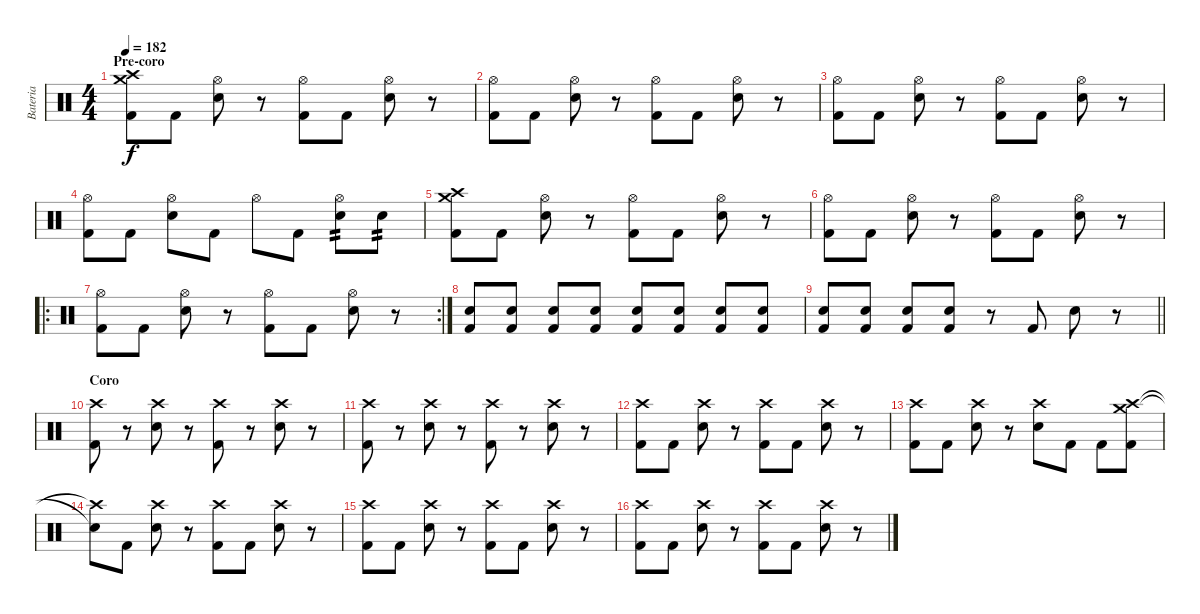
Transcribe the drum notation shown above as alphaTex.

\track ("Bateria" "Bateria") {instrument percussion}
\staff {score}
\articulation defaults
\ts (4 4)
\section ("" "Pre-coro")
\tempo 182
\clef neutral
\ks c
("Crash high (hit)" "Crash medium (hit)" "Kick (hit) 2").8{dy f} "Kick (hit) 2".8 ("Hi-Hat (open)" "Electric Snare (hit)").8 r.8 ("Hi-Hat (open)" "Kick (hit) 2").8 "Kick (hit) 2".8 ("Hi-Hat (open)" "Electric Snare (hit)").8 r.8 |
("Hi-Hat (open)" "Kick (hit) 2").8 "Kick (hit) 2".8 ("Hi-Hat (open)" "Electric Snare (hit)").8 r.8 ("Hi-Hat (open)" "Kick (hit) 2").8 "Kick (hit) 2".8 ("Hi-Hat (open)" "Electric Snare (hit)").8 r.8 |
("Hi-Hat (open)" "Kick (hit) 2").8 "Kick (hit) 2".8 ("Hi-Hat (open)" "Electric Snare (hit)").8 r.8 ("Hi-Hat (open)" "Kick (hit) 2").8 "Kick (hit) 2".8 ("Hi-Hat (open)" "Electric Snare (hit)").8 r.8 |
("Hi-Hat (open)" "Kick (hit) 2").8 "Kick (hit) 2".8 ("Hi-Hat (open)" "Electric Snare (hit)").8 "Kick (hit) 2".8 "Hi-Hat (open)".8 "Kick (hit) 2".8 ("Hi-Hat (open)" "Electric Snare (hit)").8{tp 2} "Electric Snare (hit)".8{tp 2} |
("Crash high (hit)" "Crash medium (hit)" "Kick (hit) 2").8 "Kick (hit) 2".8 ("Hi-Hat (open)" "Electric Snare (hit)").8 r.8 ("Hi-Hat (open)" "Kick (hit) 2").8 "Kick (hit) 2".8 ("Hi-Hat (open)" "Electric Snare (hit)").8 r.8 |
("Hi-Hat (open)" "Kick (hit) 2").8 "Kick (hit) 2".8 ("Hi-Hat (open)" "Electric Snare (hit)").8 r.8 ("Hi-Hat (open)" "Kick (hit) 2").8 "Kick (hit) 2".8 ("Hi-Hat (open)" "Electric Snare (hit)").8 r.8 |
\ro
\rc 2
("Hi-Hat (open)" "Kick (hit) 2").8 "Kick (hit) 2".8 ("Hi-Hat (open)" "Electric Snare (hit)").8 r.8 ("Hi-Hat (open)" "Kick (hit) 2").8 "Kick (hit) 2".8 ("Hi-Hat (open)" "Electric Snare (hit)").8 r.8 |
("Electric Snare (hit)" "Kick (hit) 2").8{volume 12} ("Electric Snare (hit)" "Kick (hit) 2").8{volume 16} ("Electric Snare (hit)" "Kick (hit) 2").8 ("Electric Snare (hit)" "Kick (hit) 2").8 ("Electric Snare (hit)" "Kick (hit) 2").8 ("Electric Snare (hit)" "Kick (hit) 2").8 ("Electric Snare (hit)" "Kick (hit) 2").8 ("Electric Snare (hit)" "Kick (hit) 2").8 |
\barLineRight lightlight
("Electric Snare (hit)" "Kick (hit) 2").8 ("Electric Snare (hit)" "Kick (hit) 2").8 ("Electric Snare (hit)" "Kick (hit) 2").8 ("Electric Snare (hit)" "Kick (hit) 2").8 r.8 "Kick (hit) 2".8 "Electric Snare (hit)".8 r.8 |
\section ("" "Coro")
("Crash high (hit)" "Kick (hit) 2").8 r.8 ("Crash high (hit)" "Electric Snare (hit)").8 r.8 ("Crash high (hit)" "Kick (hit) 2").8 r.8 ("Crash high (hit)" "Electric Snare (hit)").8 r.8 |
("Crash high (hit)" "Kick (hit) 2").8 r.8 ("Crash high (hit)" "Electric Snare (hit)").8 r.8 ("Crash high (hit)" "Kick (hit) 2").8 r.8 ("Crash high (hit)" "Electric Snare (hit)").8 r.8 |
("Crash high (hit)" "Kick (hit) 2").8 "Kick (hit) 2".8 ("Crash high (hit)" "Electric Snare (hit)").8 r.8 ("Crash high (hit)" "Kick (hit) 2").8 "Kick (hit) 2".8 ("Crash high (hit)" "Electric Snare (hit)").8 r.8 |
("Crash high (hit)" "Kick (hit) 2").8 "Kick (hit) 2".8 ("Crash high (hit)" "Electric Snare (hit)").8 r.8 ("Crash high (hit)" "Electric Snare (hit)").8 "Kick (hit) 2".8 "Kick (hit) 2".8 ("Crash high (hit)" "Crash medium (hit)" "Kick (hit) 2").8 |
("Snare (hit)"{t} "Crash high (hit)"{t}).8 "Kick (hit) 2".8 ("Crash high (hit)" "Electric Snare (hit)").8 r.8 ("Crash high (hit)" "Kick (hit) 2").8 "Kick (hit) 2".8 ("Crash high (hit)" "Electric Snare (hit)").8 r.8 |
("Crash high (hit)" "Kick (hit) 2").8 "Kick (hit) 2".8 ("Crash high (hit)" "Electric Snare (hit)").8 r.8 ("Crash high (hit)" "Kick (hit) 2").8 "Kick (hit) 2".8 ("Crash high (hit)" "Electric Snare (hit)").8 r.8 |
("Crash high (hit)" "Kick (hit) 2").8 "Kick (hit) 2".8 ("Crash high (hit)" "Electric Snare (hit)").8 r.8 ("Crash high (hit)" "Kick (hit) 2").8 "Kick (hit) 2".8 ("Crash high (hit)" "Electric Snare (hit)").8 r.8
